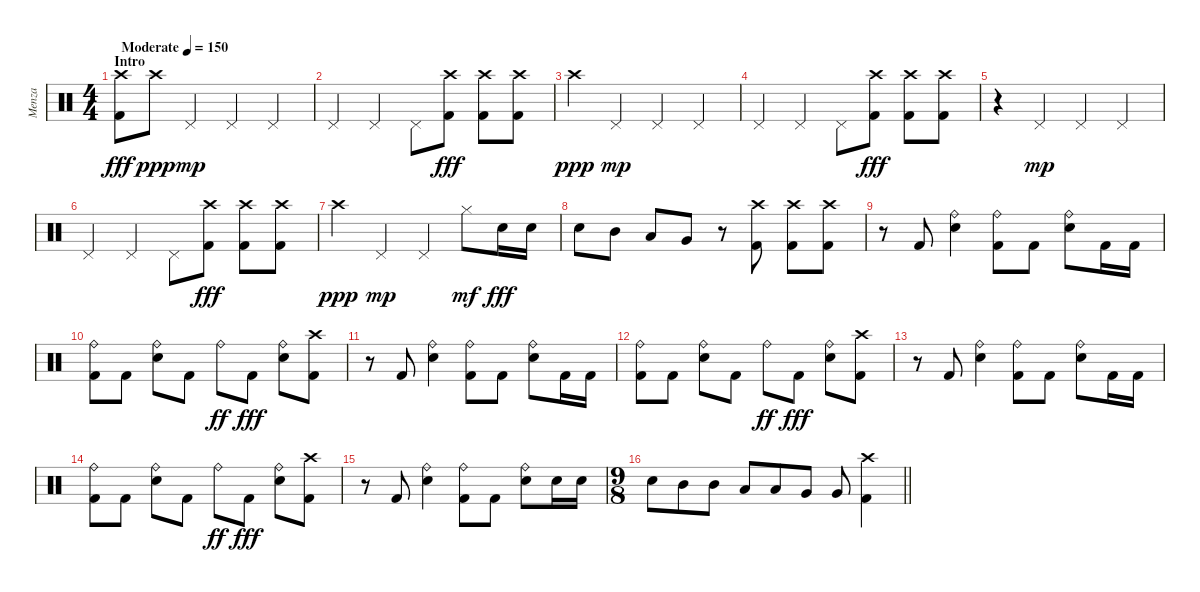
\track ("Menza" "Menza") {instrument percussion}
\staff {score}
\articulation defaults
\ts (4 4)
\section ("" "Intro ")
\tempo (150 "Moderate")
\clef neutral
\ks c
("Crash high (hit)" "Kick (hit) 2").8{dy fff} "Crash high (hit)".8{dy ppp} "Pedal Hi-Hat (hit)".4{dy mp} "Pedal Hi-Hat (hit)".4 "Pedal Hi-Hat (hit)".4 |
"Pedal Hi-Hat (hit)".4 "Pedal Hi-Hat (hit)".4 "Pedal Hi-Hat (hit)".8 ("Crash high (hit)" "Kick (hit) 2").8{dy fff} ("Crash high (hit)" "Kick (hit) 2").8 ("Crash high (hit)" "Kick (hit) 2").8 |
"Crash high (hit)".4{dy ppp} "Pedal Hi-Hat (hit)".4{dy mp} "Pedal Hi-Hat (hit)".4 "Pedal Hi-Hat (hit)".4 |
"Pedal Hi-Hat (hit)".4 "Pedal Hi-Hat (hit)".4 "Pedal Hi-Hat (hit)".8 ("Crash high (hit)" "Kick (hit) 2").8{dy fff} ("Crash high (hit)" "Kick (hit) 2").8 ("Crash high (hit)" "Kick (hit) 2").8 |
r.4 "Pedal Hi-Hat (hit)".4{dy mp} "Pedal Hi-Hat (hit)".4 "Pedal Hi-Hat (hit)".4 |
"Pedal Hi-Hat (hit)".4 "Pedal Hi-Hat (hit)".4 "Pedal Hi-Hat (hit)".8 ("Crash high (hit)" "Kick (hit) 2").8{dy fff} ("Crash high (hit)" "Kick (hit) 2").8 ("Crash high (hit)" "Kick (hit) 2").8 |
"Crash high (hit)".4{dy ppp} "Pedal Hi-Hat (hit)".4{dy mp} "Pedal Hi-Hat (hit)".4 "Hi-Hat (closed)".8{dy mf} "Snare (hit) 2".16{dy fff} "Snare (hit) 2".16 |
"Snare (hit) 2".8 "Mid Tom (hit)".8 "Low Tom (hit)".8 "Very Low Tom (hit)".8 r.8 ("Crash high (hit)" "Kick (hit) 2").8 ("Crash high (hit)" "Kick (hit) 2").8 ("Crash high (hit)" "Kick (hit) 2").8 |
r.8 "Kick (hit) 2".8 ("Ride (bell)" "Snare (hit) 2").4 ("Ride (bell)" "Kick (hit) 2").8 "Kick (hit) 2".8 ("Ride (bell)" "Snare (hit) 2").8 "Kick (hit) 2".16 "Kick (hit) 2".16 |
("Ride (bell)" "Kick (hit) 2").8 "Kick (hit) 2".8 ("Ride (bell)" "Snare (hit) 2").8 "Kick (hit) 2".8 "Ride (bell)".8{dy ff} "Kick (hit) 2".8{dy fff} ("Ride (bell)" "Snare (hit) 2").8 ("Crash high (hit)" "Kick (hit) 2").8 |
r.8 "Kick (hit) 2".8 ("Ride (bell)" "Snare (hit) 2").4 ("Ride (bell)" "Kick (hit) 2").8 "Kick (hit) 2".8 ("Ride (bell)" "Snare (hit) 2").8 "Kick (hit) 2".16 "Kick (hit) 2".16 |
("Ride (bell)" "Kick (hit) 2").8 "Kick (hit) 2".8 ("Ride (bell)" "Snare (hit) 2").8 "Kick (hit) 2".8 "Ride (bell)".8{dy ff} "Kick (hit) 2".8{dy fff} ("Ride (bell)" "Snare (hit) 2").8 ("Crash high (hit)" "Kick (hit) 2").8 |
r.8 "Kick (hit) 2".8 ("Ride (bell)" "Snare (hit) 2").4 ("Ride (bell)" "Kick (hit) 2").8 "Kick (hit) 2".8 ("Ride (bell)" "Snare (hit) 2").8 "Kick (hit) 2".16 "Kick (hit) 2".16 |
("Ride (bell)" "Kick (hit) 2").8 "Kick (hit) 2".8 ("Ride (bell)" "Snare (hit) 2").8 "Kick (hit) 2".8 "Ride (bell)".8{dy ff} "Kick (hit) 2".8{dy fff} ("Ride (bell)" "Snare (hit) 2").8 ("Crash high (hit)" "Kick (hit) 2").8 |
r.8 "Kick (hit) 2".8 ("Ride (bell)" "Snare (hit) 2").4 ("Ride (bell)" "Kick (hit) 2").8 "Kick (hit) 2".8 ("Ride (bell)" "Snare (hit) 2").8 "Snare (hit) 2".16 "Snare (hit) 2".16 |
\ts (9 8)
\barLineRight lightlight "Snare (hit) 2".8 "Mid Tom (hit)".8 "Mid Tom (hit)".8 "Low Tom (hit)".8 "Low Tom (hit)".8 "Very Low Tom (hit)".8 "Very Low Tom (hit)".8
("Crash high (hit)" "Kick (hit) 2").4
